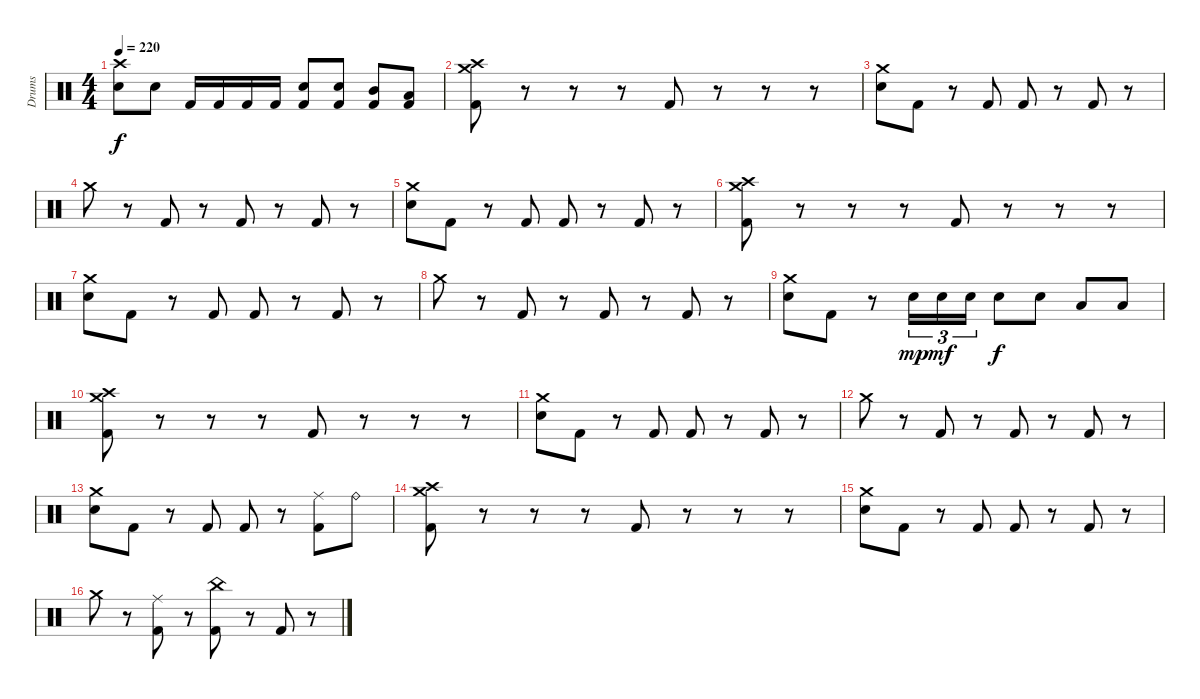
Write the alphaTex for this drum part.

\track ("Drums" "Drums") {instrument percussion}
\staff
\articulation defaults
\ts (4 4)
\tempo 220
\clef neutral
\ks c
("Crash high (hit)" "Electric Snare (hit)").8{dy f} "Electric Snare (hit)".8 "Kick (hit) 2".16 "Kick (hit) 2".16 "Kick (hit) 2".16 "Kick (hit) 2".16 ("Electric Snare (hit)" "Kick (hit) 2").8 ("Electric Snare (hit)" "Kick (hit) 2").8 ("Mid Tom (hit)" "Kick (hit) 2").8 ("Low Tom (hit)" "Kick (hit) 2").8 |
("Crash medium (hit)" "Crash high (hit)" "Kick (hit) 2").8 r.8 r.8 r.8 "Kick (hit) 2".8 r.8 r.8 r.8 |
("Crash medium (hit)" "Electric Snare (hit)").8 "Kick (hit) 2".8 r.8 "Kick (hit) 2".8 "Kick (hit) 2".8 r.8 "Kick (hit) 2".8 r.8 |
"Crash medium (hit)".8 r.8 "Kick (hit) 2".8 r.8 "Kick (hit) 2".8 r.8 "Kick (hit) 2".8 r.8 |
("Crash medium (hit)" "Electric Snare (hit)").8 "Kick (hit) 2".8 r.8 "Kick (hit) 2".8 "Kick (hit) 2".8 r.8 "Kick (hit) 2".8 r.8 |
("Crash medium (hit)" "Crash high (hit)" "Kick (hit) 2").8 r.8 r.8 r.8 "Kick (hit) 2".8 r.8 r.8 r.8 |
("Crash medium (hit)" "Electric Snare (hit)").8 "Kick (hit) 2".8 r.8 "Kick (hit) 2".8 "Kick (hit) 2".8 r.8 "Kick (hit) 2".8 r.8 |
"Crash medium (hit)".8 r.8 "Kick (hit) 2".8 r.8 "Kick (hit) 2".8 r.8 "Kick (hit) 2".8 r.8 |
("Crash medium (hit)" "Electric Snare (hit)").8 "Kick (hit) 2".8 r.8 "Electric Snare (hit)".16{tu (3 2) dy mp} "Electric Snare (hit)".16{tu (3 2) dy mf} "Electric Snare (hit)".16{tu (3 2)} "Electric Snare (hit)".8{dy f} "Electric Snare (hit)".8 "Low Tom (hit)".8 "Low Tom (hit)".8 |
("Crash medium (hit)" "Crash high (hit)" "Kick (hit) 2").8 r.8 r.8 r.8 "Kick (hit) 2".8 r.8 r.8 r.8 |
("Crash medium (hit)" "Electric Snare (hit)").8 "Kick (hit) 2".8 r.8 "Kick (hit) 2".8 "Kick (hit) 2".8 r.8 "Kick (hit) 2".8 r.8 |
"Crash medium (hit)".8 r.8 "Kick (hit) 2".8 r.8 "Kick (hit) 2".8 r.8 "Kick (hit) 2".8 r.8 |
("Crash medium (hit)" "Electric Snare (hit)").8 "Kick (hit) 2".8 r.8 "Kick (hit) 2".8 "Kick (hit) 2".8 r.8 ("Ride (middle)" "Kick (hit) 2").8 "Ride (bell)".8 |
("Crash medium (hit)" "Crash high (hit)" "Kick (hit) 2").8 r.8 r.8 r.8 "Kick (hit) 2".8 r.8 r.8 r.8 |
("Crash medium (hit)" "Electric Snare (hit)").8 "Kick (hit) 2".8 r.8 "Kick (hit) 2".8 "Kick (hit) 2".8 r.8 "Kick (hit) 2".8 r.8 |
"Crash medium (hit)".8 r.8 ("Ride (middle)" "Kick (hit) 2").8 r.8 ("China (hit)" "Kick (hit) 2").8 r.8 "Kick (hit) 2".8 r.8
